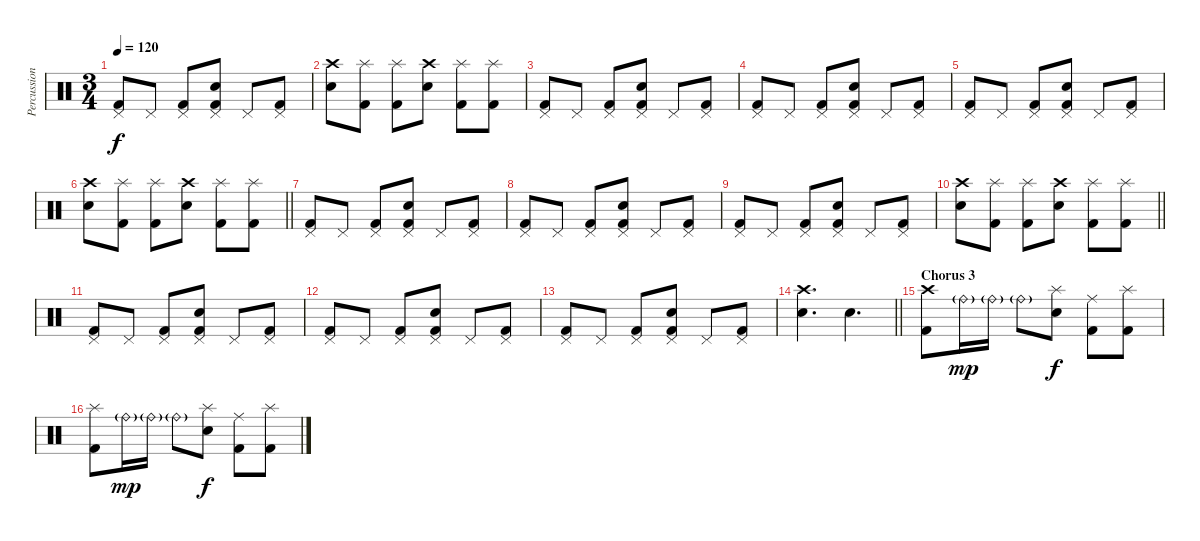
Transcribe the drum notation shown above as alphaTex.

\track ("Percussion" "Percussion") {instrument percussion}
\staff {score}
\articulation defaults
\ts (3 4)
\tempo 120
\clef neutral
\ks c
("Pedal Hi-Hat (hit)" "Kick (hit) 2").8{dy f} "Pedal Hi-Hat (hit)".8 ("Pedal Hi-Hat (hit)" "Kick (hit) 2").8 ("Pedal Hi-Hat (hit)" "Electric Snare (hit)" "Kick (hit) 2").8 "Pedal Hi-Hat (hit)".8 ("Pedal Hi-Hat (hit)" "Kick (hit) 2").8 |
("Crash high (hit)" "Electric Snare (hit)").8 ("Splash (hit)" "Kick (hit) 2").8 ("Splash (hit)" "Kick (hit) 2").8 ("Crash high (hit)" "Electric Snare (hit)").8 ("Splash (hit)" "Kick (hit) 2").8 ("Splash (hit)" "Kick (hit) 2").8 |
("Pedal Hi-Hat (hit)" "Kick (hit) 2").8 "Pedal Hi-Hat (hit)".8 ("Pedal Hi-Hat (hit)" "Kick (hit) 2").8 ("Pedal Hi-Hat (hit)" "Electric Snare (hit)" "Kick (hit) 2").8 "Pedal Hi-Hat (hit)".8 ("Pedal Hi-Hat (hit)" "Kick (hit) 2").8 |
("Pedal Hi-Hat (hit)" "Kick (hit) 2").8 "Pedal Hi-Hat (hit)".8 ("Pedal Hi-Hat (hit)" "Kick (hit) 2").8 ("Pedal Hi-Hat (hit)" "Electric Snare (hit)" "Kick (hit) 2").8 "Pedal Hi-Hat (hit)".8 ("Pedal Hi-Hat (hit)" "Kick (hit) 2").8 |
("Pedal Hi-Hat (hit)" "Kick (hit) 2").8 "Pedal Hi-Hat (hit)".8 ("Pedal Hi-Hat (hit)" "Kick (hit) 2").8 ("Pedal Hi-Hat (hit)" "Electric Snare (hit)" "Kick (hit) 2").8 "Pedal Hi-Hat (hit)".8 ("Pedal Hi-Hat (hit)" "Kick (hit) 2").8 |
\barLineRight lightlight
("Crash high (hit)" "Electric Snare (hit)").8 ("Splash (hit)" "Kick (hit) 2").8 ("Splash (hit)" "Kick (hit) 2").8 ("Crash high (hit)" "Electric Snare (hit)").8 ("Splash (hit)" "Kick (hit) 2").8 ("Splash (hit)" "Kick (hit) 2").8 |
("Pedal Hi-Hat (hit)" "Kick (hit) 2").8 "Pedal Hi-Hat (hit)".8 ("Pedal Hi-Hat (hit)" "Kick (hit) 2").8 ("Pedal Hi-Hat (hit)" "Electric Snare (hit)" "Kick (hit) 2").8 "Pedal Hi-Hat (hit)".8 ("Pedal Hi-Hat (hit)" "Kick (hit) 2").8 |
("Pedal Hi-Hat (hit)" "Kick (hit) 2").8 "Pedal Hi-Hat (hit)".8 ("Pedal Hi-Hat (hit)" "Kick (hit) 2").8 ("Pedal Hi-Hat (hit)" "Electric Snare (hit)" "Kick (hit) 2").8 "Pedal Hi-Hat (hit)".8 ("Pedal Hi-Hat (hit)" "Kick (hit) 2").8 |
("Pedal Hi-Hat (hit)" "Kick (hit) 2").8 "Pedal Hi-Hat (hit)".8 ("Pedal Hi-Hat (hit)" "Kick (hit) 2").8 ("Pedal Hi-Hat (hit)" "Electric Snare (hit)" "Kick (hit) 2").8 "Pedal Hi-Hat (hit)".8 ("Pedal Hi-Hat (hit)" "Kick (hit) 2").8 |
\barLineRight lightlight
("Crash high (hit)" "Electric Snare (hit)").8 ("Splash (hit)" "Kick (hit) 2").8 ("Splash (hit)" "Kick (hit) 2").8 ("Crash high (hit)" "Electric Snare (hit)").8 ("Splash (hit)" "Kick (hit) 2").8 ("Splash (hit)" "Kick (hit) 2").8 |
("Pedal Hi-Hat (hit)" "Kick (hit) 2").8 "Pedal Hi-Hat (hit)".8 ("Pedal Hi-Hat (hit)" "Kick (hit) 2").8 ("Pedal Hi-Hat (hit)" "Electric Snare (hit)" "Kick (hit) 2").8 "Pedal Hi-Hat (hit)".8 ("Pedal Hi-Hat (hit)" "Kick (hit) 2").8 |
("Pedal Hi-Hat (hit)" "Kick (hit) 2").8 "Pedal Hi-Hat (hit)".8 ("Pedal Hi-Hat (hit)" "Kick (hit) 2").8 ("Pedal Hi-Hat (hit)" "Electric Snare (hit)" "Kick (hit) 2").8 "Pedal Hi-Hat (hit)".8 ("Pedal Hi-Hat (hit)" "Kick (hit) 2").8 |
("Pedal Hi-Hat (hit)" "Kick (hit) 2").8 "Pedal Hi-Hat (hit)".8 ("Pedal Hi-Hat (hit)" "Kick (hit) 2").8 ("Pedal Hi-Hat (hit)" "Electric Snare (hit)" "Kick (hit) 2").8 "Pedal Hi-Hat (hit)".8 ("Pedal Hi-Hat (hit)" "Kick (hit) 2").8 |
\barLineRight lightlight
("Crash high (hit)" "Electric Snare (hit)").4{d} "Electric Snare (hit)".4{d} |
\section ("" "Chorus 3")
("Crash high (hit)" "Kick (hit) 2").8 "Ride (bell)"{g}.16{dy mp} "Ride (bell)"{g}.16 "Ride (bell)"{g}.8 ("Splash (hit)" "Electric Snare (hit)").8{dy f} ("Ride (middle)" "Kick (hit) 2").8 ("Splash (hit)" "Kick (hit) 2").8 |
("Splash (hit)" "Kick (hit) 2").8 "Ride (bell)"{g}.16{dy mp} "Ride (bell)"{g}.16 "Ride (bell)"{g}.8 ("Splash (hit)" "Electric Snare (hit)").8{dy f} ("Ride (middle)" "Kick (hit) 2").8 ("Splash (hit)" "Kick (hit) 2").8
